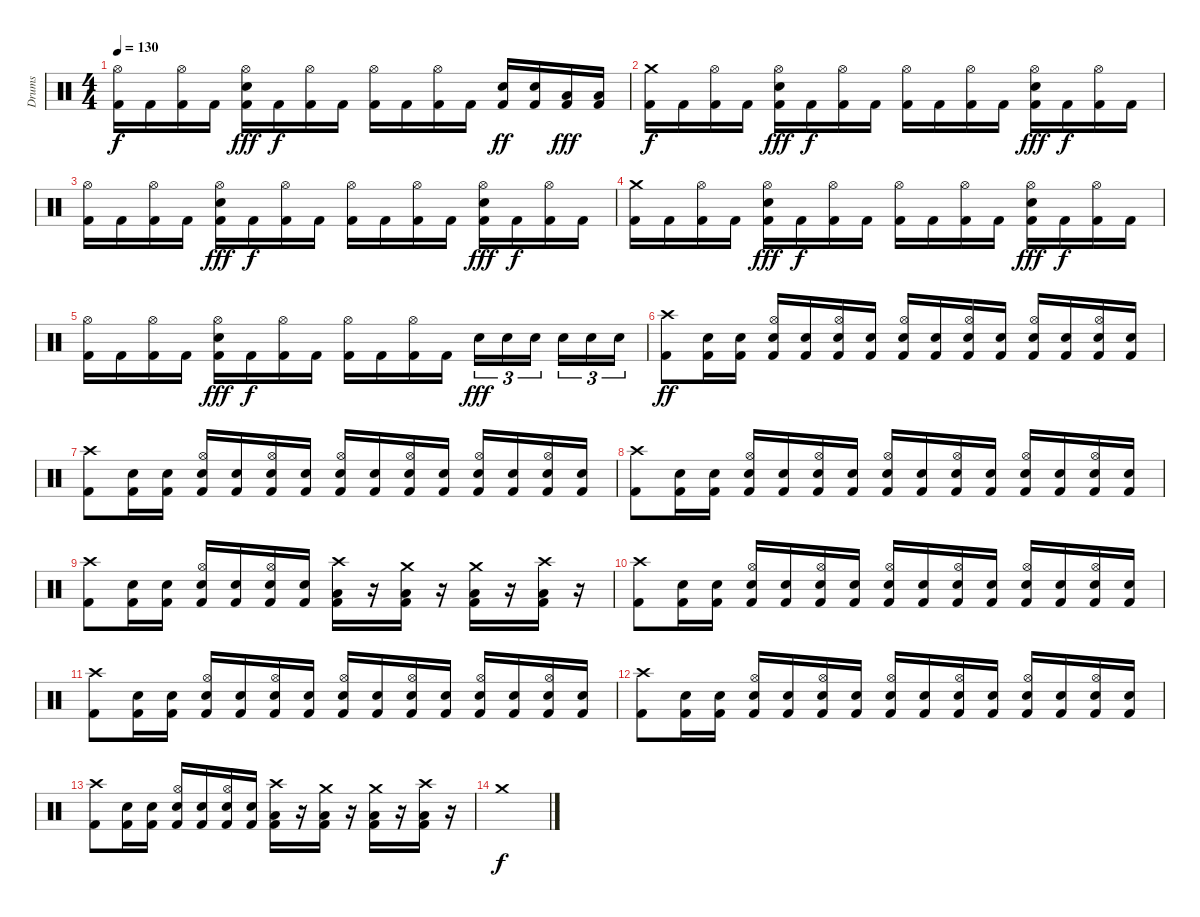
\track ("Drums" "Drums") {instrument percussion}
\staff {score}
\articulation defaults
\ts (4 4)
\tempo 130
\clef neutral
\ks c
("Kick (hit) 2" "Hi-Hat (open)").16{dy f} "Kick (hit) 2".16 ("Kick (hit) 2" "Hi-Hat (open)").16 "Kick (hit) 2".16 ("Kick (hit) 2" "Hi-Hat (open)" "Snare (hit) 2").16{dy fff} "Kick (hit) 2".16{dy f} ("Kick (hit) 2" "Hi-Hat (open)").16 "Kick (hit) 2".16 ("Kick (hit) 2" "Hi-Hat (open)").16 "Kick (hit) 2".16 ("Kick (hit) 2" "Hi-Hat (open)").16 "Kick (hit) 2".16 ("Kick (hit) 2" "Snare (hit) 2").16{dy ff} ("Kick (hit) 2" "Snare (hit) 2").16 ("Kick (hit) 2" "Low Tom (hit)").16{dy fff} ("Kick (hit) 2" "Low Tom (hit)").16 |
("Kick (hit) 2" "Crash medium (hit)").16{dy f} "Kick (hit) 2".16 ("Kick (hit) 2" "Hi-Hat (open)").16 "Kick (hit) 2".16 ("Kick (hit) 2" "Hi-Hat (open)" "Snare (hit) 2").16{dy fff} "Kick (hit) 2".16{dy f} ("Kick (hit) 2" "Hi-Hat (open)").16 "Kick (hit) 2".16 ("Kick (hit) 2" "Hi-Hat (open)").16 "Kick (hit) 2".16 ("Kick (hit) 2" "Hi-Hat (open)").16 "Kick (hit) 2".16 ("Kick (hit) 2" "Hi-Hat (open)" "Snare (hit) 2").16{dy fff} "Kick (hit) 2".16{dy f} ("Kick (hit) 2" "Hi-Hat (open)").16 "Kick (hit) 2".16 |
("Kick (hit) 2" "Hi-Hat (open)").16 "Kick (hit) 2".16 ("Kick (hit) 2" "Hi-Hat (open)").16 "Kick (hit) 2".16 ("Kick (hit) 2" "Hi-Hat (open)" "Snare (hit) 2").16{dy fff} "Kick (hit) 2".16{dy f} ("Kick (hit) 2" "Hi-Hat (open)").16 "Kick (hit) 2".16 ("Kick (hit) 2" "Hi-Hat (open)").16 "Kick (hit) 2".16 ("Kick (hit) 2" "Hi-Hat (open)").16 "Kick (hit) 2".16 ("Kick (hit) 2" "Hi-Hat (open)" "Snare (hit) 2").16{dy fff} "Kick (hit) 2".16{dy f} ("Kick (hit) 2" "Hi-Hat (open)").16 "Kick (hit) 2".16 |
("Kick (hit) 2" "Crash medium (hit)").16 "Kick (hit) 2".16 ("Kick (hit) 2" "Hi-Hat (open)").16 "Kick (hit) 2".16 ("Kick (hit) 2" "Hi-Hat (open)" "Snare (hit) 2").16{dy fff} "Kick (hit) 2".16{dy f} ("Kick (hit) 2" "Hi-Hat (open)").16 "Kick (hit) 2".16 ("Kick (hit) 2" "Hi-Hat (open)").16 "Kick (hit) 2".16 ("Kick (hit) 2" "Hi-Hat (open)").16 "Kick (hit) 2".16 ("Kick (hit) 2" "Hi-Hat (open)" "Snare (hit) 2").16{dy fff} "Kick (hit) 2".16{dy f} ("Kick (hit) 2" "Hi-Hat (open)").16 "Kick (hit) 2".16 |
("Kick (hit) 2" "Hi-Hat (open)").16 "Kick (hit) 2".16 ("Kick (hit) 2" "Hi-Hat (open)").16 "Kick (hit) 2".16 ("Kick (hit) 2" "Hi-Hat (open)" "Snare (hit) 2").16{dy fff} "Kick (hit) 2".16{dy f} ("Kick (hit) 2" "Hi-Hat (open)").16 "Kick (hit) 2".16 ("Kick (hit) 2" "Hi-Hat (open)").16 "Kick (hit) 2".16 ("Kick (hit) 2" "Hi-Hat (open)").16 "Kick (hit) 2".16 "Electric Snare (hit)".16{tu (3 2) dy fff} "Electric Snare (hit)".16{tu (3 2)} "Electric Snare (hit)".16{tu (3 2) beam splitsecondary} "Electric Snare (hit)".16{tu (3 2)} "Electric Snare (hit)".16{tu (3 2)} "Electric Snare (hit)".16{tu (3 2)} |
("Crash high (hit)" "Kick (hit) 2").8{dy ff} ("Snare (hit) 2" "Kick (hit) 2").16 ("Snare (hit) 2" "Kick (hit) 2").16 ("Snare (hit) 2" "Kick (hit) 2" "Hi-Hat (open)").16 ("Snare (hit) 2" "Kick (hit) 2").16 ("Snare (hit) 2" "Kick (hit) 2" "Hi-Hat (open)").16 ("Snare (hit) 2" "Kick (hit) 2").16 ("Snare (hit) 2" "Kick (hit) 2" "Hi-Hat (open)").16 ("Snare (hit) 2" "Kick (hit) 2").16 ("Snare (hit) 2" "Kick (hit) 2" "Hi-Hat (open)").16 ("Snare (hit) 2" "Kick (hit) 2").16 ("Snare (hit) 2" "Kick (hit) 2" "Hi-Hat (open)").16 ("Snare (hit) 2" "Kick (hit) 2").16 ("Snare (hit) 2" "Kick (hit) 2" "Hi-Hat (open)").16 ("Snare (hit) 2" "Kick (hit) 2").16 |
("Crash high (hit)" "Kick (hit) 2").8 ("Snare (hit) 2" "Kick (hit) 2").16 ("Snare (hit) 2" "Kick (hit) 2").16 ("Snare (hit) 2" "Kick (hit) 2" "Hi-Hat (open)").16 ("Snare (hit) 2" "Kick (hit) 2").16 ("Snare (hit) 2" "Kick (hit) 2" "Hi-Hat (open)").16 ("Snare (hit) 2" "Kick (hit) 2").16 ("Snare (hit) 2" "Kick (hit) 2" "Hi-Hat (open)").16 ("Snare (hit) 2" "Kick (hit) 2").16 ("Snare (hit) 2" "Kick (hit) 2" "Hi-Hat (open)").16 ("Snare (hit) 2" "Kick (hit) 2").16 ("Snare (hit) 2" "Kick (hit) 2" "Hi-Hat (open)").16 ("Snare (hit) 2" "Kick (hit) 2").16 ("Snare (hit) 2" "Kick (hit) 2" "Hi-Hat (open)").16 ("Snare (hit) 2" "Kick (hit) 2").16 |
("Crash high (hit)" "Kick (hit) 2").8 ("Snare (hit) 2" "Kick (hit) 2").16 ("Snare (hit) 2" "Kick (hit) 2").16 ("Snare (hit) 2" "Kick (hit) 2" "Hi-Hat (open)").16 ("Snare (hit) 2" "Kick (hit) 2").16 ("Snare (hit) 2" "Kick (hit) 2" "Hi-Hat (open)").16 ("Snare (hit) 2" "Kick (hit) 2").16 ("Snare (hit) 2" "Kick (hit) 2" "Hi-Hat (open)").16 ("Snare (hit) 2" "Kick (hit) 2").16 ("Snare (hit) 2" "Kick (hit) 2" "Hi-Hat (open)").16 ("Snare (hit) 2" "Kick (hit) 2").16 ("Snare (hit) 2" "Kick (hit) 2" "Hi-Hat (open)").16 ("Snare (hit) 2" "Kick (hit) 2").16 ("Snare (hit) 2" "Kick (hit) 2" "Hi-Hat (open)").16 ("Snare (hit) 2" "Kick (hit) 2").16 |
("Crash high (hit)" "Kick (hit) 2").8 ("Snare (hit) 2" "Kick (hit) 2").16 ("Snare (hit) 2" "Kick (hit) 2").16 ("Snare (hit) 2" "Kick (hit) 2" "Hi-Hat (open)").16 ("Snare (hit) 2" "Kick (hit) 2").16 ("Snare (hit) 2" "Kick (hit) 2" "Hi-Hat (open)").16 ("Snare (hit) 2" "Kick (hit) 2").16 ("Crash high (hit)" "Kick (hit) 2" "Low Tom (hit)").16 r.16 ("Crash medium (hit)" "Kick (hit) 2" "Low Tom (hit)").16 r.16 ("Crash medium (hit)" "Kick (hit) 2" "Low Tom (hit)").16 r.16 ("Crash high (hit)" "Kick (hit) 2" "Low Tom (hit)").16 r.16 |
("Crash high (hit)" "Kick (hit) 2").8 ("Snare (hit) 2" "Kick (hit) 2").16 ("Snare (hit) 2" "Kick (hit) 2").16 ("Snare (hit) 2" "Kick (hit) 2" "Hi-Hat (open)").16 ("Snare (hit) 2" "Kick (hit) 2").16 ("Snare (hit) 2" "Kick (hit) 2" "Hi-Hat (open)").16 ("Snare (hit) 2" "Kick (hit) 2").16 ("Snare (hit) 2" "Kick (hit) 2" "Hi-Hat (open)").16 ("Snare (hit) 2" "Kick (hit) 2").16 ("Snare (hit) 2" "Kick (hit) 2" "Hi-Hat (open)").16 ("Snare (hit) 2" "Kick (hit) 2").16 ("Snare (hit) 2" "Kick (hit) 2" "Hi-Hat (open)").16 ("Snare (hit) 2" "Kick (hit) 2").16 ("Snare (hit) 2" "Kick (hit) 2" "Hi-Hat (open)").16 ("Snare (hit) 2" "Kick (hit) 2").16 |
("Crash high (hit)" "Kick (hit) 2").8 ("Snare (hit) 2" "Kick (hit) 2").16 ("Snare (hit) 2" "Kick (hit) 2").16 ("Snare (hit) 2" "Kick (hit) 2" "Hi-Hat (open)").16 ("Snare (hit) 2" "Kick (hit) 2").16 ("Snare (hit) 2" "Kick (hit) 2" "Hi-Hat (open)").16 ("Snare (hit) 2" "Kick (hit) 2").16 ("Snare (hit) 2" "Kick (hit) 2" "Hi-Hat (open)").16 ("Snare (hit) 2" "Kick (hit) 2").16 ("Snare (hit) 2" "Kick (hit) 2" "Hi-Hat (open)").16 ("Snare (hit) 2" "Kick (hit) 2").16 ("Snare (hit) 2" "Kick (hit) 2" "Hi-Hat (open)").16 ("Snare (hit) 2" "Kick (hit) 2").16 ("Snare (hit) 2" "Kick (hit) 2" "Hi-Hat (open)").16 ("Snare (hit) 2" "Kick (hit) 2").16 |
("Crash high (hit)" "Kick (hit) 2").8 ("Snare (hit) 2" "Kick (hit) 2").16 ("Snare (hit) 2" "Kick (hit) 2").16 ("Snare (hit) 2" "Kick (hit) 2" "Hi-Hat (open)").16 ("Snare (hit) 2" "Kick (hit) 2").16 ("Snare (hit) 2" "Kick (hit) 2" "Hi-Hat (open)").16 ("Snare (hit) 2" "Kick (hit) 2").16 ("Snare (hit) 2" "Kick (hit) 2" "Hi-Hat (open)").16 ("Snare (hit) 2" "Kick (hit) 2").16 ("Snare (hit) 2" "Kick (hit) 2" "Hi-Hat (open)").16 ("Snare (hit) 2" "Kick (hit) 2").16 ("Snare (hit) 2" "Kick (hit) 2" "Hi-Hat (open)").16 ("Snare (hit) 2" "Kick (hit) 2").16 ("Snare (hit) 2" "Kick (hit) 2" "Hi-Hat (open)").16 ("Snare (hit) 2" "Kick (hit) 2").16 |
("Crash high (hit)" "Kick (hit) 2").8 ("Snare (hit) 2" "Kick (hit) 2").16 ("Snare (hit) 2" "Kick (hit) 2").16 ("Snare (hit) 2" "Kick (hit) 2" "Hi-Hat (open)").16 ("Snare (hit) 2" "Kick (hit) 2").16 ("Snare (hit) 2" "Kick (hit) 2" "Hi-Hat (open)").16 ("Snare (hit) 2" "Kick (hit) 2").16 ("Crash high (hit)" "Kick (hit) 2" "Low Tom (hit)").16 r.16 ("Crash medium (hit)" "Kick (hit) 2" "Low Tom (hit)").16 r.16 ("Crash medium (hit)" "Kick (hit) 2" "Low Tom (hit)").16 r.16 ("Crash high (hit)" "Kick (hit) 2" "Low Tom (hit)").16 r.16 |
"Crash medium (hit)".1{dy f}
